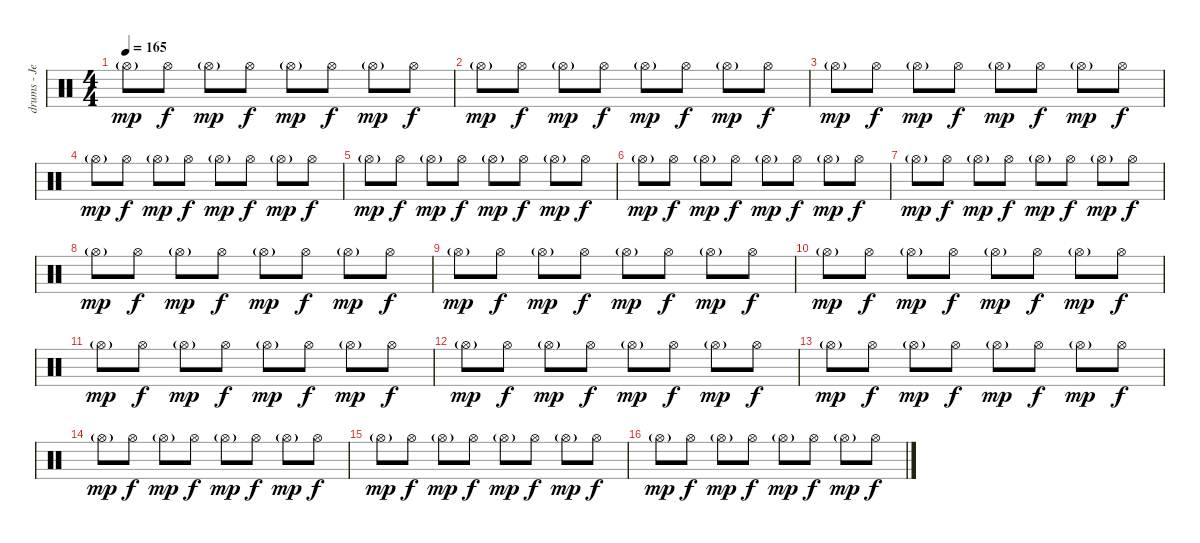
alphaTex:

\track ("drums - Jeff" "drums - Je") {instrument percussion}
\staff {score}
\articulation defaults
\ts (4 4)
\tempo 165
\clef neutral
\ks c "Hi-Hat (open)"{g}.8{dy mp} "Hi-Hat (open)".8{dy f} "Hi-Hat (open)"{g}.8{dy mp} "Hi-Hat (open)".8{dy f} "Hi-Hat (open)"{g}.8{dy mp} "Hi-Hat (open)".8{dy f} "Hi-Hat (open)"{g}.8{dy mp} "Hi-Hat (open)".8{dy f}
|
"Hi-Hat (open)"{g}.8{dy mp} "Hi-Hat (open)".8{dy f} "Hi-Hat (open)"{g}.8{dy mp} "Hi-Hat (open)".8{dy f} "Hi-Hat (open)"{g}.8{dy mp} "Hi-Hat (open)".8{dy f} "Hi-Hat (open)"{g}.8{dy mp} "Hi-Hat (open)".8{dy f} |
"Hi-Hat (open)"{g}.8{dy mp} "Hi-Hat (open)".8{dy f} "Hi-Hat (open)"{g}.8{dy mp} "Hi-Hat (open)".8{dy f} "Hi-Hat (open)"{g}.8{dy mp} "Hi-Hat (open)".8{dy f} "Hi-Hat (open)"{g}.8{dy mp} "Hi-Hat (open)".8{dy f} |
"Hi-Hat (open)"{g}.8{dy mp} "Hi-Hat (open)".8{dy f} "Hi-Hat (open)"{g}.8{dy mp} "Hi-Hat (open)".8{dy f} "Hi-Hat (open)"{g}.8{dy mp} "Hi-Hat (open)".8{dy f} "Hi-Hat (open)"{g}.8{dy mp} "Hi-Hat (open)".8{dy f} |
"Hi-Hat (open)"{g}.8{dy mp} "Hi-Hat (open)".8{dy f} "Hi-Hat (open)"{g}.8{dy mp} "Hi-Hat (open)".8{dy f} "Hi-Hat (open)"{g}.8{dy mp} "Hi-Hat (open)".8{dy f} "Hi-Hat (open)"{g}.8{dy mp} "Hi-Hat (open)".8{dy f} |
"Hi-Hat (open)"{g}.8{dy mp} "Hi-Hat (open)".8{dy f} "Hi-Hat (open)"{g}.8{dy mp} "Hi-Hat (open)".8{dy f} "Hi-Hat (open)"{g}.8{dy mp} "Hi-Hat (open)".8{dy f} "Hi-Hat (open)"{g}.8{dy mp} "Hi-Hat (open)".8{dy f} |
"Hi-Hat (open)"{g}.8{dy mp} "Hi-Hat (open)".8{dy f} "Hi-Hat (open)"{g}.8{dy mp} "Hi-Hat (open)".8{dy f} "Hi-Hat (open)"{g}.8{dy mp} "Hi-Hat (open)".8{dy f} "Hi-Hat (open)"{g}.8{dy mp} "Hi-Hat (open)".8{dy f} |
"Hi-Hat (open)"{g}.8{dy mp} "Hi-Hat (open)".8{dy f} "Hi-Hat (open)"{g}.8{dy mp} "Hi-Hat (open)".8{dy f} "Hi-Hat (open)"{g}.8{dy mp} "Hi-Hat (open)".8{dy f} "Hi-Hat (open)"{g}.8{dy mp} "Hi-Hat (open)".8{dy f} |
"Hi-Hat (open)"{g}.8{dy mp} "Hi-Hat (open)".8{dy f} "Hi-Hat (open)"{g}.8{dy mp} "Hi-Hat (open)".8{dy f} "Hi-Hat (open)"{g}.8{dy mp} "Hi-Hat (open)".8{dy f} "Hi-Hat (open)"{g}.8{dy mp} "Hi-Hat (open)".8{dy f} |
"Hi-Hat (open)"{g}.8{dy mp} "Hi-Hat (open)".8{dy f} "Hi-Hat (open)"{g}.8{dy mp} "Hi-Hat (open)".8{dy f} "Hi-Hat (open)"{g}.8{dy mp} "Hi-Hat (open)".8{dy f} "Hi-Hat (open)"{g}.8{dy mp} "Hi-Hat (open)".8{dy f} |
"Hi-Hat (open)"{g}.8{dy mp} "Hi-Hat (open)".8{dy f} "Hi-Hat (open)"{g}.8{dy mp} "Hi-Hat (open)".8{dy f} "Hi-Hat (open)"{g}.8{dy mp} "Hi-Hat (open)".8{dy f} "Hi-Hat (open)"{g}.8{dy mp} "Hi-Hat (open)".8{dy f} |
"Hi-Hat (open)"{g}.8{dy mp} "Hi-Hat (open)".8{dy f} "Hi-Hat (open)"{g}.8{dy mp} "Hi-Hat (open)".8{dy f} "Hi-Hat (open)"{g}.8{dy mp} "Hi-Hat (open)".8{dy f} "Hi-Hat (open)"{g}.8{dy mp} "Hi-Hat (open)".8{dy f} |
"Hi-Hat (open)"{g}.8{dy mp} "Hi-Hat (open)".8{dy f} "Hi-Hat (open)"{g}.8{dy mp} "Hi-Hat (open)".8{dy f} "Hi-Hat (open)"{g}.8{dy mp} "Hi-Hat (open)".8{dy f} "Hi-Hat (open)"{g}.8{dy mp} "Hi-Hat (open)".8{dy f} |
"Hi-Hat (open)"{g}.8{dy mp} "Hi-Hat (open)".8{dy f} "Hi-Hat (open)"{g}.8{dy mp} "Hi-Hat (open)".8{dy f} "Hi-Hat (open)"{g}.8{dy mp} "Hi-Hat (open)".8{dy f} "Hi-Hat (open)"{g}.8{dy mp} "Hi-Hat (open)".8{dy f} |
"Hi-Hat (open)"{g}.8{dy mp} "Hi-Hat (open)".8{dy f} "Hi-Hat (open)"{g}.8{dy mp} "Hi-Hat (open)".8{dy f} "Hi-Hat (open)"{g}.8{dy mp} "Hi-Hat (open)".8{dy f} "Hi-Hat (open)"{g}.8{dy mp} "Hi-Hat (open)".8{dy f} |
"Hi-Hat (open)"{g}.8{dy mp} "Hi-Hat (open)".8{dy f} "Hi-Hat (open)"{g}.8{dy mp} "Hi-Hat (open)".8{dy f} "Hi-Hat (open)"{g}.8{dy mp} "Hi-Hat (open)".8{dy f} "Hi-Hat (open)"{g}.8{dy mp} "Hi-Hat (open)".8{dy f}
